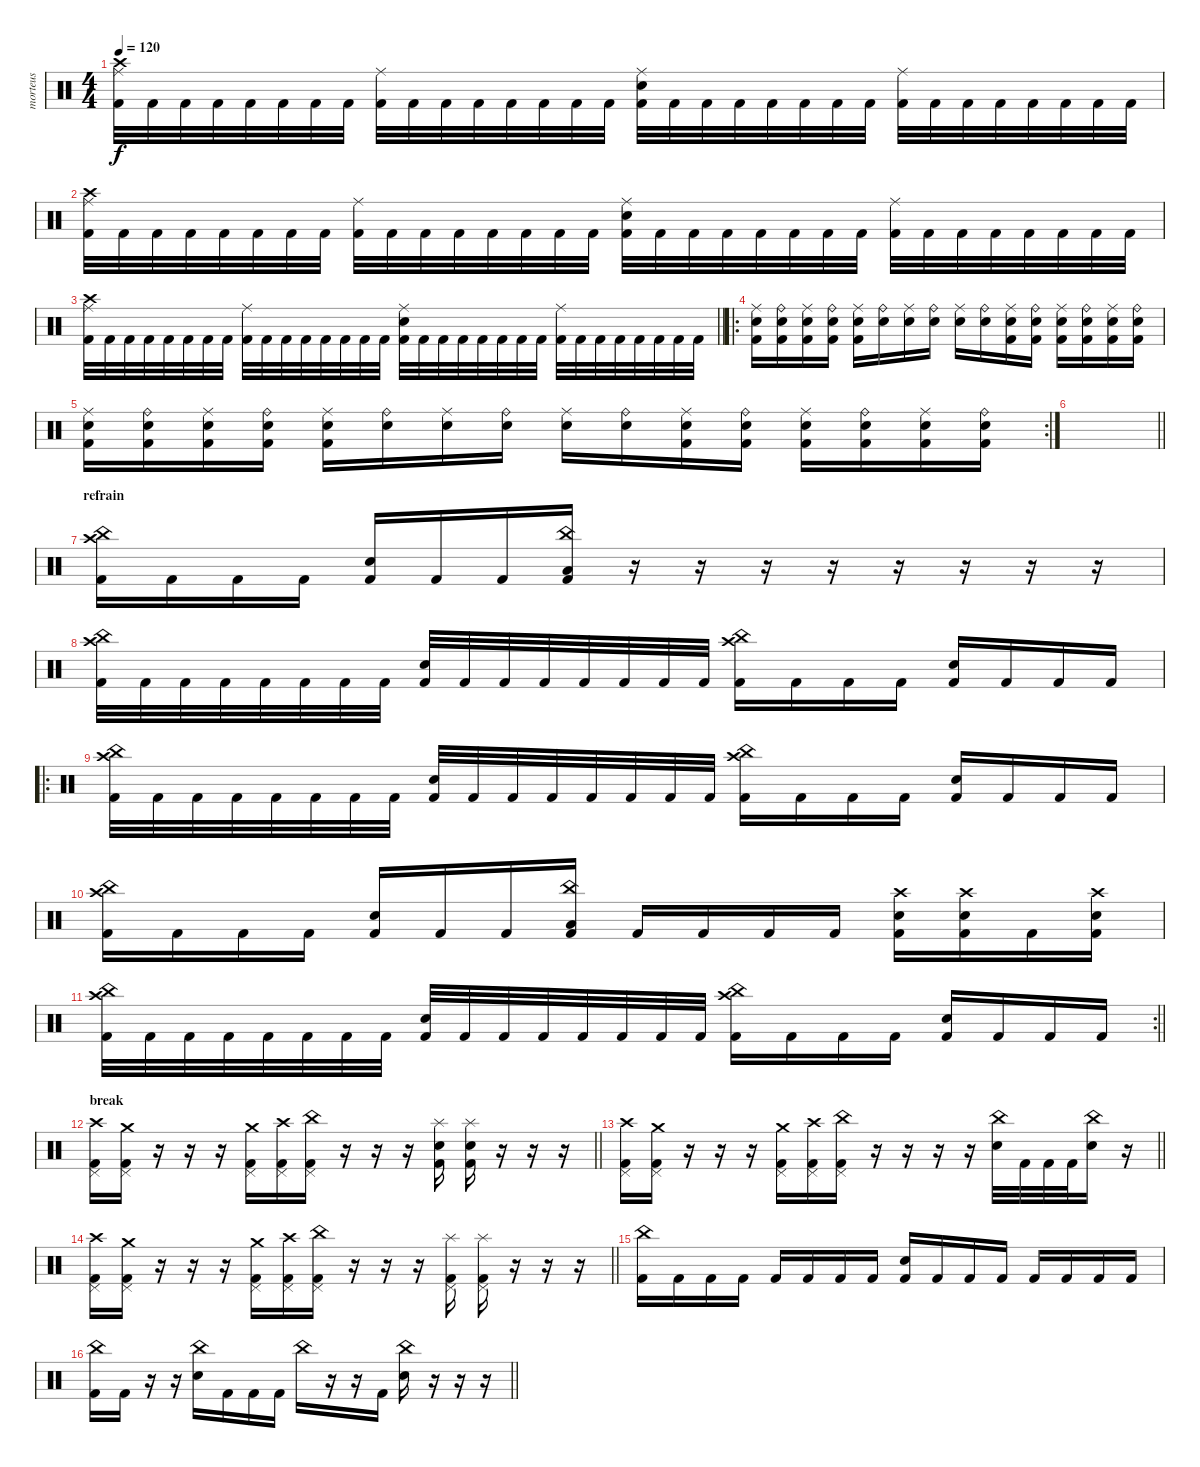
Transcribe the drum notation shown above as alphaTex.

\track ("morteus" "morteus") {instrument percussion}
\staff {score}
\articulation defaults
\ts (4 4)
\tempo 120
\clef neutral
\ks c
("Ride (middle)" "Crash high (hit)" "Kick (hit) 2").32{dy f} "Kick (hit) 2".32 "Kick (hit) 2".32 "Kick (hit) 2".32 "Kick (hit) 2".32 "Kick (hit) 2".32 "Kick (hit) 2".32 "Kick (hit) 2".32 ("Ride (middle)" "Kick (hit) 2").32 "Kick (hit) 2".32 "Kick (hit) 2".32 "Kick (hit) 2".32 "Kick (hit) 2".32 "Kick (hit) 2".32 "Kick (hit) 2".32 "Kick (hit) 2".32 ("Ride (middle)" "Electric Snare (hit)" "Kick (hit) 2").32 "Kick (hit) 2".32 "Kick (hit) 2".32 "Kick (hit) 2".32 "Kick (hit) 2".32 "Kick (hit) 2".32 "Kick (hit) 2".32 "Kick (hit) 2".32 ("Ride (middle)" "Kick (hit) 2").32 "Kick (hit) 2".32 "Kick (hit) 2".32 "Kick (hit) 2".32 "Kick (hit) 2".32 "Kick (hit) 2".32 "Kick (hit) 2".32 "Kick (hit) 2".32 |
("Ride (middle)" "Crash high (hit)" "Kick (hit) 2").32 "Kick (hit) 2".32 "Kick (hit) 2".32 "Kick (hit) 2".32 "Kick (hit) 2".32 "Kick (hit) 2".32 "Kick (hit) 2".32 "Kick (hit) 2".32 ("Ride (middle)" "Kick (hit) 2").32 "Kick (hit) 2".32 "Kick (hit) 2".32 "Kick (hit) 2".32 "Kick (hit) 2".32 "Kick (hit) 2".32 "Kick (hit) 2".32 "Kick (hit) 2".32 ("Ride (middle)" "Electric Snare (hit)" "Kick (hit) 2").32 "Kick (hit) 2".32 "Kick (hit) 2".32 "Kick (hit) 2".32 "Kick (hit) 2".32 "Kick (hit) 2".32 "Kick (hit) 2".32 "Kick (hit) 2".32 ("Ride (middle)" "Kick (hit) 2").32 "Kick (hit) 2".32 "Kick (hit) 2".32 "Kick (hit) 2".32 "Kick (hit) 2".32 "Kick (hit) 2".32 "Kick (hit) 2".32 "Kick (hit) 2".32 |
\barLineRight lightlight
("Ride (middle)" "Crash high (hit)" "Kick (hit) 2").32 "Kick (hit) 2".32 "Kick (hit) 2".32 "Kick (hit) 2".32 "Kick (hit) 2".32 "Kick (hit) 2".32 "Kick (hit) 2".32 "Kick (hit) 2".32 ("Ride (middle)" "Kick (hit) 2").32 "Kick (hit) 2".32 "Kick (hit) 2".32 "Kick (hit) 2".32 "Kick (hit) 2".32 "Kick (hit) 2".32 "Kick (hit) 2".32 "Kick (hit) 2".32 ("Ride (middle)" "Electric Snare (hit)" "Kick (hit) 2").32 "Kick (hit) 2".32 "Kick (hit) 2".32 "Kick (hit) 2".32 "Kick (hit) 2".32 "Kick (hit) 2".32 "Kick (hit) 2".32 "Kick (hit) 2".32 ("Ride (middle)" "Kick (hit) 2").32 "Kick (hit) 2".32 "Kick (hit) 2".32 "Kick (hit) 2".32 "Kick (hit) 2".32 "Kick (hit) 2".32 "Kick (hit) 2".32 "Kick (hit) 2".32 |
\ro
("Electric Snare (hit)" "Ride (middle)" "Kick (hit) 2").16 ("Electric Snare (hit)" "Ride (bell)" "Kick (hit) 2").16 ("Electric Snare (hit)" "Ride (middle)" "Kick (hit) 2").16 ("Electric Snare (hit)" "Ride (bell)" "Kick (hit) 2").16 ("Electric Snare (hit)" "Ride (middle)" "Kick (hit) 2").16 ("Electric Snare (hit)" "Ride (bell)").16 ("Electric Snare (hit)" "Ride (middle)").16 ("Electric Snare (hit)" "Ride (bell)").16 ("Electric Snare (hit)" "Ride (middle)").16 ("Electric Snare (hit)" "Ride (bell)").16 ("Electric Snare (hit)" "Ride (middle)" "Kick (hit) 2").16 ("Electric Snare (hit)" "Ride (bell)" "Kick (hit) 2").16 ("Electric Snare (hit)" "Ride (middle)" "Kick (hit) 2").16 ("Electric Snare (hit)" "Ride (bell)" "Kick (hit) 2").16 ("Electric Snare (hit)" "Ride (middle)" "Kick (hit) 2").16 ("Electric Snare (hit)" "Ride (bell)" "Kick (hit) 2").16 |
\rc 2
("Electric Snare (hit)" "Ride (middle)" "Kick (hit) 2").16 ("Electric Snare (hit)" "Ride (bell)" "Kick (hit) 2").16 ("Electric Snare (hit)" "Ride (middle)" "Kick (hit) 2").16 ("Electric Snare (hit)" "Ride (bell)" "Kick (hit) 2").16 ("Electric Snare (hit)" "Ride (middle)" "Kick (hit) 2").16 ("Electric Snare (hit)" "Ride (bell)").16 ("Electric Snare (hit)" "Ride (middle)").16 ("Electric Snare (hit)" "Ride (bell)").16 ("Electric Snare (hit)" "Ride (middle)").16 ("Electric Snare (hit)" "Ride (bell)").16 ("Electric Snare (hit)" "Ride (middle)" "Kick (hit) 2").16 ("Electric Snare (hit)" "Ride (bell)" "Kick (hit) 2").16 ("Electric Snare (hit)" "Ride (middle)" "Kick (hit) 2").16 ("Electric Snare (hit)" "Ride (bell)" "Kick (hit) 2").16 ("Electric Snare (hit)" "Ride (middle)" "Kick (hit) 2").16 ("Electric Snare (hit)" "Ride (bell)" "Kick (hit) 2").16 |
\barLineRight lightlight
|
\section ("" "refrain")
("China (hit)" "Crash high (hit)" "Kick (hit) 2").16 "Kick (hit) 2".16 "Kick (hit) 2".16 "Kick (hit) 2".16 ("Electric Snare (hit)" "Kick (hit) 2").16 "Kick (hit) 2".16 "Kick (hit) 2".16 ("China (hit)" "Low Tom (hit)" "Kick (hit) 2").16 r.16 r.16 r.16 r.16 r.16 r.16 r.16 r.16 |
("China (hit)" "Crash high (hit)" "Kick (hit) 2").32 "Kick (hit) 2".32 "Kick (hit) 2".32 "Kick (hit) 2".32 "Kick (hit) 2".32 "Kick (hit) 2".32 "Kick (hit) 2".32 "Kick (hit) 2".32 ("Electric Snare (hit)" "Kick (hit) 2").32 "Kick (hit) 2".32 "Kick (hit) 2".32 "Kick (hit) 2".32 "Kick (hit) 2".32 "Kick (hit) 2".32 "Kick (hit) 2".32 "Kick (hit) 2".32 ("China (hit)" "Crash high (hit)" "Kick (hit) 2").16 "Kick (hit) 2".16 "Kick (hit) 2".16 "Kick (hit) 2".16 ("Electric Snare (hit)" "Kick (hit) 2").16 "Kick (hit) 2".16 "Kick (hit) 2".16 "Kick (hit) 2".16 |
\ro
("China (hit)" "Crash high (hit)" "Kick (hit) 2").32 "Kick (hit) 2".32 "Kick (hit) 2".32 "Kick (hit) 2".32 "Kick (hit) 2".32 "Kick (hit) 2".32 "Kick (hit) 2".32 "Kick (hit) 2".32 ("Electric Snare (hit)" "Kick (hit) 2").32 "Kick (hit) 2".32 "Kick (hit) 2".32 "Kick (hit) 2".32 "Kick (hit) 2".32 "Kick (hit) 2".32 "Kick (hit) 2".32 "Kick (hit) 2".32 ("China (hit)" "Crash high (hit)" "Kick (hit) 2").16 "Kick (hit) 2".16 "Kick (hit) 2".16 "Kick (hit) 2".16 ("Electric Snare (hit)" "Kick (hit) 2").16 "Kick (hit) 2".16 "Kick (hit) 2".16 "Kick (hit) 2".16 |
("China (hit)" "Crash high (hit)" "Kick (hit) 2").16 "Kick (hit) 2".16 "Kick (hit) 2".16 "Kick (hit) 2".16 ("Electric Snare (hit)" "Kick (hit) 2").16 "Kick (hit) 2".16 "Kick (hit) 2".16 ("China (hit)" "Low Tom (hit)" "Kick (hit) 2").16 "Kick (hit) 2".16 "Kick (hit) 2".16 "Kick (hit) 2".16 "Kick (hit) 2".16 ("Crash high (hit)" "Electric Snare (hit)" "Kick (hit) 2").16 ("Crash high (hit)" "Electric Snare (hit)" "Kick (hit) 2").16 "Kick (hit) 2".16 ("Crash high (hit)" "Electric Snare (hit)" "Kick (hit) 2").16 |
\rc 2
\barLineRight lightlight
("China (hit)" "Crash high (hit)" "Kick (hit) 2").32 "Kick (hit) 2".32 "Kick (hit) 2".32 "Kick (hit) 2".32 "Kick (hit) 2".32 "Kick (hit) 2".32 "Kick (hit) 2".32 "Kick (hit) 2".32 ("Electric Snare (hit)" "Kick (hit) 2").32 "Kick (hit) 2".32 "Kick (hit) 2".32 "Kick (hit) 2".32 "Kick (hit) 2".32 "Kick (hit) 2".32 "Kick (hit) 2".32 "Kick (hit) 2".32 ("China (hit)" "Crash high (hit)" "Kick (hit) 2").16 "Kick (hit) 2".16 "Kick (hit) 2".16 "Kick (hit) 2".16 ("Electric Snare (hit)" "Kick (hit) 2").16 "Kick (hit) 2".16 "Kick (hit) 2".16 "Kick (hit) 2".16 |
\section ("" "break")
\barLineRight lightlight
("Kick (hit) 2" "Crash high (hit)" "Pedal Hi-Hat (hit)").16 ("Kick (hit) 2" "Crash medium (hit)" "Pedal Hi-Hat (hit)").16 r.16 r.16 r.16 ("Kick (hit) 2" "Crash medium (hit)" "Pedal Hi-Hat (hit)").16 ("Kick (hit) 2" "Crash high (hit)" "Pedal Hi-Hat (hit)").16 ("Kick (hit) 2" "China (hit)" "Pedal Hi-Hat (hit)").16 r.16 r.16 r.16 ("Kick (hit) 2" "Splash (hit)" "Electric Snare (hit)").16 ("Kick (hit) 2" "Splash (hit)" "Electric Snare (hit)").16 r.16 r.16 r.16 |
\barLineRight lightlight
("Kick (hit) 2" "Crash high (hit)" "Pedal Hi-Hat (hit)").16 ("Kick (hit) 2" "Crash medium (hit)" "Pedal Hi-Hat (hit)").16 r.16 r.16 r.16 ("Kick (hit) 2" "Crash medium (hit)" "Pedal Hi-Hat (hit)").16 ("Kick (hit) 2" "Crash high (hit)" "Pedal Hi-Hat (hit)").16 ("Kick (hit) 2" "China (hit)" "Pedal Hi-Hat (hit)").16 r.16 r.16 r.16 r.16 ("Electric Snare (hit)" "China (hit)").32 "Kick (hit) 2".32 "Kick (hit) 2".32 "Kick (hit) 2".32 ("Electric Snare (hit)" "China (hit)").16 r.16 |
\barLineRight lightlight
("Kick (hit) 2" "Crash high (hit)" "Pedal Hi-Hat (hit)").16 ("Kick (hit) 2" "Crash medium (hit)" "Pedal Hi-Hat (hit)").16 r.16 r.16 r.16 ("Kick (hit) 2" "Crash medium (hit)" "Pedal Hi-Hat (hit)").16 ("Kick (hit) 2" "Crash high (hit)" "Pedal Hi-Hat (hit)").16 ("Kick (hit) 2" "China (hit)" "Pedal Hi-Hat (hit)").16 r.16 r.16 r.16 ("Kick (hit) 2" "Splash (hit)" "Pedal Hi-Hat (hit)").16 ("Kick (hit) 2" "Splash (hit)" "Pedal Hi-Hat (hit)").16 r.16 r.16 r.16 |
("China (hit)" "Kick (hit) 2").16 "Kick (hit) 2".16 "Kick (hit) 2".16 "Kick (hit) 2".16 "Kick (hit) 2".16 "Kick (hit) 2".16 "Kick (hit) 2".16 "Kick (hit) 2".16 ("Electric Snare (hit)" "Kick (hit) 2").16 "Kick (hit) 2".16 "Kick (hit) 2".16 "Kick (hit) 2".16 "Kick (hit) 2".16 "Kick (hit) 2".16 "Kick (hit) 2".16 "Kick (hit) 2".16 |
\barLineRight lightlight
("China (hit)" "Kick (hit) 2").16 "Kick (hit) 2".16 r.16 r.16 ("China (hit)" "Electric Snare (hit)").16 "Kick (hit) 2".16 "Kick (hit) 2".16 "Kick (hit) 2".16 "China (hit)".16 r.16 r.16 "Kick (hit) 2".16 ("China (hit)" "Electric Snare (hit)").16 r.16 r.16 r.16
